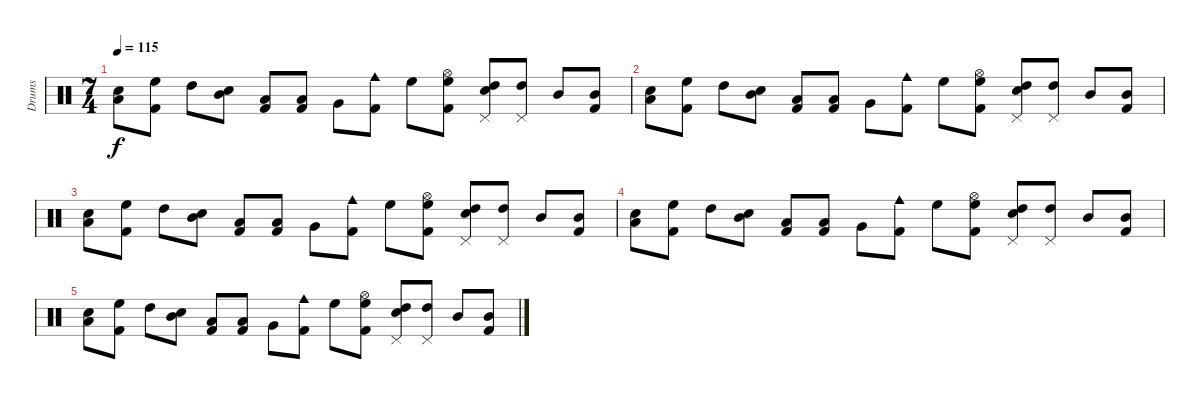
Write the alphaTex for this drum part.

\track ("Drums" "Drums") {instrument percussion}
\staff {score}
\articulation defaults
\ts (7 4)
\tempo 115
\clef neutral
\ks c
("Low Floor Tom (hit)" "Electric Snare (hit)").8{dy f} ("High Floor Tom (hit)" "Kick (hit) 2").8 "High Tom (hit)".8 ("Mid Tom (hit)" "Electric Snare (hit)").8 ("Low Tom (hit)" "Kick (hit) 2").8 ("Low Floor Tom (hit)" "Kick (hit) 2").8 "Very Low Tom (hit)".8 ("Cowbell medium (hit)" "Kick (hit) 2").8 "High Floor Tom (hit)".8 ("High Floor Tom (hit)" "Hi-Hat (open)" "Kick (hit) 2").8 ("High Tom (hit)" "Electric Snare (hit)" "Pedal Hi-Hat (hit)").8 ("High Tom (hit)" "Pedal Hi-Hat (hit)").8 "Mid Tom (hit)".8 ("Mid Tom (hit)" "Kick (hit) 2").8 |
("Low Floor Tom (hit)" "Electric Snare (hit)").8 ("High Floor Tom (hit)" "Kick (hit) 2").8 "High Tom (hit)".8 ("Mid Tom (hit)" "Electric Snare (hit)").8 ("Low Tom (hit)" "Kick (hit) 2").8 ("Low Floor Tom (hit)" "Kick (hit) 2").8 "Very Low Tom (hit)".8 ("Cowbell medium (hit)" "Kick (hit) 2").8 "High Floor Tom (hit)".8 ("High Floor Tom (hit)" "Hi-Hat (open)" "Kick (hit) 2").8 ("High Tom (hit)" "Electric Snare (hit)" "Pedal Hi-Hat (hit)").8 ("High Tom (hit)" "Pedal Hi-Hat (hit)").8 "Mid Tom (hit)".8 ("Mid Tom (hit)" "Kick (hit) 2").8 |
("Low Floor Tom (hit)" "Electric Snare (hit)").8 ("High Floor Tom (hit)" "Kick (hit) 2").8 "High Tom (hit)".8 ("Mid Tom (hit)" "Electric Snare (hit)").8 ("Low Tom (hit)" "Kick (hit) 2").8 ("Low Floor Tom (hit)" "Kick (hit) 2").8 "Very Low Tom (hit)".8 ("Cowbell medium (hit)" "Kick (hit) 2").8 "High Floor Tom (hit)".8 ("High Floor Tom (hit)" "Hi-Hat (open)" "Kick (hit) 2").8 ("High Tom (hit)" "Electric Snare (hit)" "Pedal Hi-Hat (hit)").8 ("High Tom (hit)" "Pedal Hi-Hat (hit)").8 "Mid Tom (hit)".8 ("Mid Tom (hit)" "Kick (hit) 2").8 |
("Low Floor Tom (hit)" "Electric Snare (hit)").8 ("High Floor Tom (hit)" "Kick (hit) 2").8 "High Tom (hit)".8 ("Mid Tom (hit)" "Electric Snare (hit)").8 ("Low Tom (hit)" "Kick (hit) 2").8 ("Low Floor Tom (hit)" "Kick (hit) 2").8 "Very Low Tom (hit)".8 ("Cowbell medium (hit)" "Kick (hit) 2").8 "High Floor Tom (hit)".8 ("High Floor Tom (hit)" "Hi-Hat (open)" "Kick (hit) 2").8 ("High Tom (hit)" "Electric Snare (hit)" "Pedal Hi-Hat (hit)").8 ("High Tom (hit)" "Pedal Hi-Hat (hit)").8 "Mid Tom (hit)".8 ("Mid Tom (hit)" "Kick (hit) 2").8 |
("Low Floor Tom (hit)" "Electric Snare (hit)").8 ("High Floor Tom (hit)" "Kick (hit) 2").8 "High Tom (hit)".8 ("Mid Tom (hit)" "Electric Snare (hit)").8 ("Low Tom (hit)" "Kick (hit) 2").8 ("Low Floor Tom (hit)" "Kick (hit) 2").8 "Very Low Tom (hit)".8 ("Cowbell medium (hit)" "Kick (hit) 2").8 "High Floor Tom (hit)".8 ("High Floor Tom (hit)" "Hi-Hat (open)" "Kick (hit) 2").8 ("High Tom (hit)" "Electric Snare (hit)" "Pedal Hi-Hat (hit)").8 ("High Tom (hit)" "Pedal Hi-Hat (hit)").8 "Mid Tom (hit)".8 ("Mid Tom (hit)" "Kick (hit) 2").8
